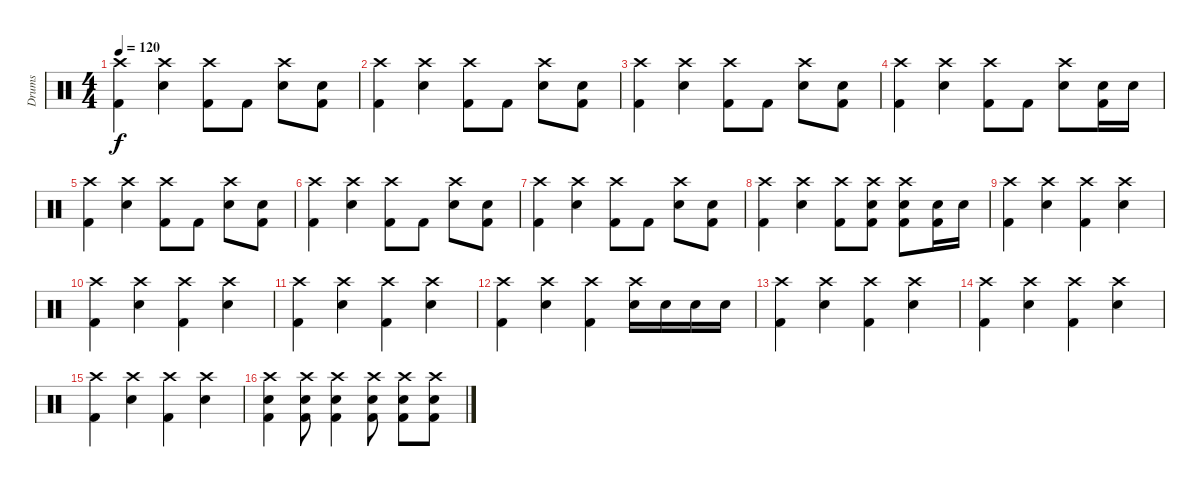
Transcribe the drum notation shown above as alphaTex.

\track ("Drums" "Drums") {instrument percussion}
\staff {score}
\articulation defaults
\ts (4 4)
\tempo 120
\clef neutral
\ks c
("Crash high (hit)" "Kick (hit) 2").4{dy f} ("Crash high (hit)" "Electric Snare (hit)").4 ("Crash high (hit)" "Kick (hit) 2").8 "Kick (hit) 2".8 ("Crash high (hit)" "Electric Snare (hit)").8 ("Electric Snare (hit)" "Kick (hit) 2").8 |
("Crash high (hit)" "Kick (hit) 2").4 ("Crash high (hit)" "Electric Snare (hit)").4 ("Crash high (hit)" "Kick (hit) 2").8 "Kick (hit) 2".8 ("Crash high (hit)" "Electric Snare (hit)").8 ("Electric Snare (hit)" "Kick (hit) 2").8 |
("Crash high (hit)" "Kick (hit) 2").4 ("Crash high (hit)" "Electric Snare (hit)").4 ("Crash high (hit)" "Kick (hit) 2").8 "Kick (hit) 2".8 ("Crash high (hit)" "Electric Snare (hit)").8 ("Electric Snare (hit)" "Kick (hit) 2").8 |
("Crash high (hit)" "Kick (hit) 2").4 ("Crash high (hit)" "Electric Snare (hit)").4 ("Crash high (hit)" "Kick (hit) 2").8 "Kick (hit) 2".8 ("Crash high (hit)" "Electric Snare (hit)").8 ("Electric Snare (hit)" "Kick (hit) 2").16 "Electric Snare (hit)".16 |
("Crash high (hit)" "Kick (hit) 2").4 ("Crash high (hit)" "Electric Snare (hit)").4 ("Crash high (hit)" "Kick (hit) 2").8 "Kick (hit) 2".8 ("Crash high (hit)" "Electric Snare (hit)").8 ("Electric Snare (hit)" "Kick (hit) 2").8 |
("Crash high (hit)" "Kick (hit) 2").4 ("Crash high (hit)" "Electric Snare (hit)").4 ("Crash high (hit)" "Kick (hit) 2").8 "Kick (hit) 2".8 ("Crash high (hit)" "Electric Snare (hit)").8 ("Electric Snare (hit)" "Kick (hit) 2").8 |
("Crash high (hit)" "Kick (hit) 2").4 ("Crash high (hit)" "Electric Snare (hit)").4 ("Crash high (hit)" "Kick (hit) 2").8 "Kick (hit) 2".8 ("Crash high (hit)" "Electric Snare (hit)").8 ("Electric Snare (hit)" "Kick (hit) 2").8 |
("Crash high (hit)" "Kick (hit) 2").4 ("Crash high (hit)" "Electric Snare (hit)").4 ("Crash high (hit)" "Kick (hit) 2").8 ("Crash high (hit)" "Electric Snare (hit)" "Kick (hit) 2").8 ("Crash high (hit)" "Electric Snare (hit)" "Kick (hit) 2").8 ("Electric Snare (hit)" "Kick (hit) 2").16 "Electric Snare (hit)".16 |
("Crash high (hit)" "Kick (hit) 2").4 ("Crash high (hit)" "Electric Snare (hit)").4 ("Crash high (hit)" "Kick (hit) 2").4 ("Crash high (hit)" "Electric Snare (hit)").4 |
("Crash high (hit)" "Kick (hit) 2").4 ("Crash high (hit)" "Electric Snare (hit)").4 ("Crash high (hit)" "Kick (hit) 2").4 ("Crash high (hit)" "Electric Snare (hit)").4 |
("Crash high (hit)" "Kick (hit) 2").4 ("Crash high (hit)" "Electric Snare (hit)").4 ("Crash high (hit)" "Kick (hit) 2").4 ("Crash high (hit)" "Electric Snare (hit)").4 |
("Crash high (hit)" "Kick (hit) 2").4 ("Crash high (hit)" "Electric Snare (hit)").4 ("Crash high (hit)" "Kick (hit) 2").4 ("Crash high (hit)" "Electric Snare (hit)").16 "Electric Snare (hit)".16 "Electric Snare (hit)".16 "Electric Snare (hit)".16 |
("Crash high (hit)" "Kick (hit) 2").4 ("Crash high (hit)" "Electric Snare (hit)").4 ("Crash high (hit)" "Kick (hit) 2").4 ("Crash high (hit)" "Electric Snare (hit)").4 |
("Crash high (hit)" "Kick (hit) 2").4 ("Crash high (hit)" "Electric Snare (hit)").4 ("Crash high (hit)" "Kick (hit) 2").4 ("Crash high (hit)" "Electric Snare (hit)").4 |
("Crash high (hit)" "Kick (hit) 2").4 ("Crash high (hit)" "Electric Snare (hit)").4 ("Crash high (hit)" "Kick (hit) 2").4 ("Crash high (hit)" "Electric Snare (hit)").4 |
("Crash high (hit)" "Electric Snare (hit)" "Kick (hit) 2").4 ("Crash high (hit)" "Electric Snare (hit)" "Kick (hit) 2").8 ("Crash high (hit)" "Electric Snare (hit)" "Kick (hit) 2").4 ("Crash high (hit)" "Electric Snare (hit)" "Kick (hit) 2").8 ("Crash high (hit)" "Electric Snare (hit)" "Kick (hit) 2").8 ("Crash high (hit)" "Electric Snare (hit)" "Kick (hit) 2").8
